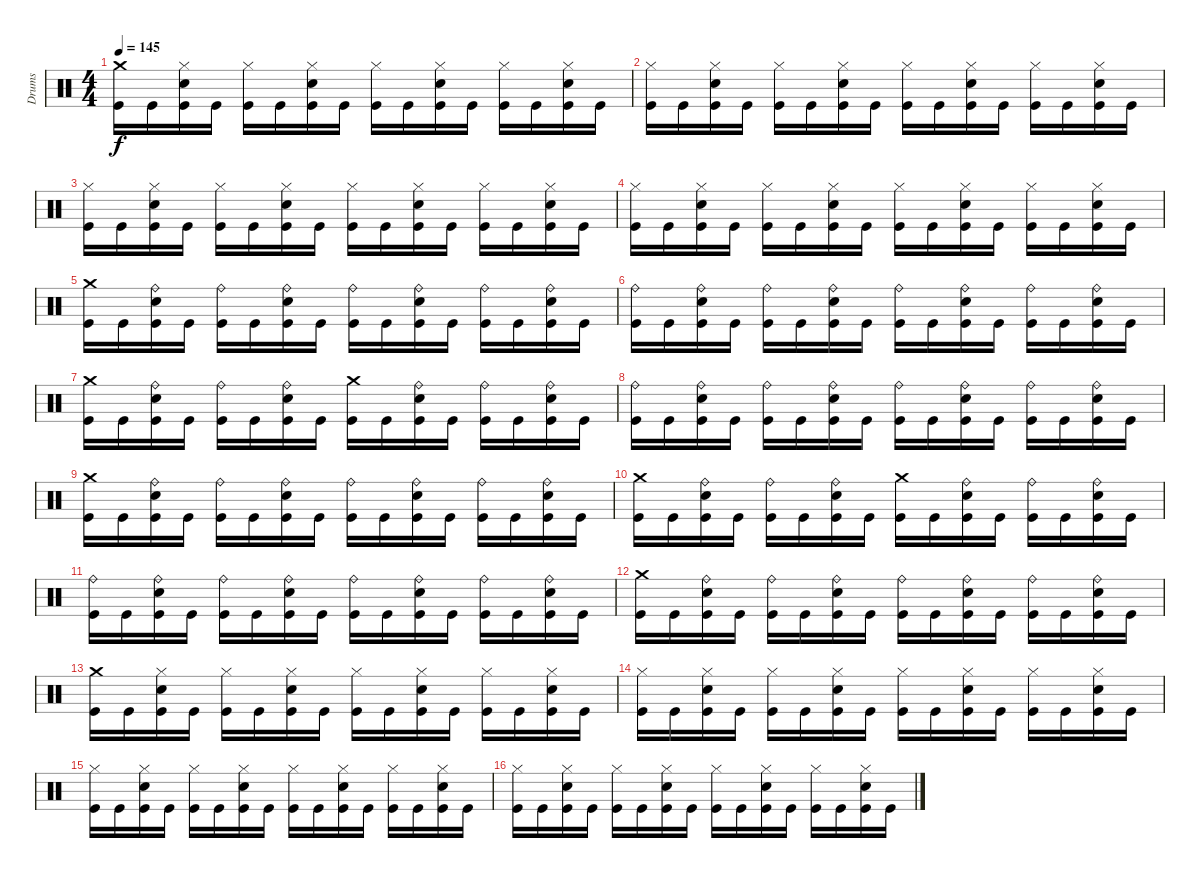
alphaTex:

\track ("Drums" "Drums") {instrument percussion}
\staff {score}
\articulation defaults
\ts (4 4)
\tempo 145
\clef neutral
\ks c
("Crash medium (hit)" "Kick (hit)").16{dy f} "Kick (hit)".16 ("Hi-Hat (closed)" "Snare (hit) 2" "Kick (hit)").16 "Kick (hit)".16 ("Hi-Hat (closed)" "Kick (hit)").16 "Kick (hit)".16 ("Hi-Hat (closed)" "Snare (hit) 2" "Kick (hit)").16 "Kick (hit)".16 ("Hi-Hat (closed)" "Kick (hit)").16 "Kick (hit)".16 ("Hi-Hat (closed)" "Snare (hit) 2" "Kick (hit)").16 "Kick (hit)".16 ("Hi-Hat (closed)" "Kick (hit)").16 "Kick (hit)".16 ("Hi-Hat (closed)" "Snare (hit) 2" "Kick (hit)").16 "Kick (hit)".16 |
("Hi-Hat (closed)" "Kick (hit)").16 "Kick (hit)".16 ("Hi-Hat (closed)" "Snare (hit) 2" "Kick (hit)").16 "Kick (hit)".16 ("Hi-Hat (closed)" "Kick (hit)").16 "Kick (hit)".16 ("Hi-Hat (closed)" "Snare (hit) 2" "Kick (hit)").16 "Kick (hit)".16 ("Hi-Hat (closed)" "Kick (hit)").16 "Kick (hit)".16 ("Hi-Hat (closed)" "Snare (hit) 2" "Kick (hit)").16 "Kick (hit)".16 ("Hi-Hat (closed)" "Kick (hit)").16 "Kick (hit)".16 ("Hi-Hat (closed)" "Snare (hit) 2" "Kick (hit)").16 "Kick (hit)".16 |
("Hi-Hat (closed)" "Kick (hit)").16 "Kick (hit)".16 ("Hi-Hat (closed)" "Snare (hit) 2" "Kick (hit)").16 "Kick (hit)".16 ("Hi-Hat (closed)" "Kick (hit)").16 "Kick (hit)".16 ("Hi-Hat (closed)" "Snare (hit) 2" "Kick (hit)").16 "Kick (hit)".16 ("Hi-Hat (closed)" "Kick (hit)").16 "Kick (hit)".16 ("Hi-Hat (closed)" "Snare (hit) 2" "Kick (hit)").16 "Kick (hit)".16 ("Hi-Hat (closed)" "Kick (hit)").16 "Kick (hit)".16 ("Hi-Hat (closed)" "Snare (hit) 2" "Kick (hit)").16 "Kick (hit)".16 |
("Hi-Hat (closed)" "Kick (hit)").16 "Kick (hit)".16 ("Hi-Hat (closed)" "Snare (hit) 2" "Kick (hit)").16 "Kick (hit)".16 ("Hi-Hat (closed)" "Kick (hit)").16 "Kick (hit)".16 ("Hi-Hat (closed)" "Snare (hit) 2" "Kick (hit)").16 "Kick (hit)".16 ("Hi-Hat (closed)" "Kick (hit)").16 "Kick (hit)".16 ("Hi-Hat (closed)" "Snare (hit) 2" "Kick (hit)").16 "Kick (hit)".16 ("Hi-Hat (closed)" "Kick (hit)").16 "Kick (hit)".16 ("Hi-Hat (closed)" "Snare (hit) 2" "Kick (hit)").16 "Kick (hit)".16 |
("Crash medium (hit)" "Kick (hit)").16 "Kick (hit)".16 ("Ride (bell)" "Snare (hit) 2" "Kick (hit)").16 "Kick (hit)".16 ("Ride (bell)" "Kick (hit)").16 "Kick (hit)".16 ("Ride (bell)" "Snare (hit) 2" "Kick (hit)").16 "Kick (hit)".16 ("Ride (bell)" "Kick (hit)").16 "Kick (hit)".16 ("Ride (bell)" "Snare (hit) 2" "Kick (hit)").16 "Kick (hit)".16 ("Ride (bell)" "Kick (hit)").16 "Kick (hit)".16 ("Ride (bell)" "Snare (hit) 2" "Kick (hit)").16 "Kick (hit)".16 |
("Ride (bell)" "Kick (hit)").16 "Kick (hit)".16 ("Ride (bell)" "Snare (hit) 2" "Kick (hit)").16 "Kick (hit)".16 ("Ride (bell)" "Kick (hit)").16 "Kick (hit)".16 ("Ride (bell)" "Snare (hit) 2" "Kick (hit)").16 "Kick (hit)".16 ("Ride (bell)" "Kick (hit)").16 "Kick (hit)".16 ("Ride (bell)" "Snare (hit) 2" "Kick (hit)").16 "Kick (hit)".16 ("Ride (bell)" "Kick (hit)").16 "Kick (hit)".16 ("Ride (bell)" "Snare (hit) 2" "Kick (hit)").16 "Kick (hit)".16 |
("Crash medium (hit)" "Kick (hit)").16 "Kick (hit)".16 ("Ride (bell)" "Snare (hit) 2" "Kick (hit)").16 "Kick (hit)".16 ("Ride (bell)" "Kick (hit)").16 "Kick (hit)".16 ("Ride (bell)" "Snare (hit) 2" "Kick (hit)").16 "Kick (hit)".16 ("Crash medium (hit)" "Kick (hit)").16 "Kick (hit)".16 ("Ride (bell)" "Snare (hit) 2" "Kick (hit)").16 "Kick (hit)".16 ("Ride (bell)" "Kick (hit)").16 "Kick (hit)".16 ("Ride (bell)" "Snare (hit) 2" "Kick (hit)").16 "Kick (hit)".16 |
("Ride (bell)" "Kick (hit)").16 "Kick (hit)".16 ("Ride (bell)" "Snare (hit) 2" "Kick (hit)").16 "Kick (hit)".16 ("Ride (bell)" "Kick (hit)").16 "Kick (hit)".16 ("Ride (bell)" "Snare (hit) 2" "Kick (hit)").16 "Kick (hit)".16 ("Ride (bell)" "Kick (hit)").16 "Kick (hit)".16 ("Ride (bell)" "Snare (hit) 2" "Kick (hit)").16 "Kick (hit)".16 ("Ride (bell)" "Kick (hit)").16 "Kick (hit)".16 ("Ride (bell)" "Snare (hit) 2" "Kick (hit)").16 "Kick (hit)".16 |
("Crash medium (hit)" "Kick (hit)").16 "Kick (hit)".16 ("Ride (bell)" "Snare (hit) 2" "Kick (hit)").16 "Kick (hit)".16 ("Ride (bell)" "Kick (hit)").16 "Kick (hit)".16 ("Ride (bell)" "Snare (hit) 2" "Kick (hit)").16 "Kick (hit)".16 ("Ride (bell)" "Kick (hit)").16 "Kick (hit)".16 ("Ride (bell)" "Snare (hit) 2" "Kick (hit)").16 "Kick (hit)".16 ("Ride (bell)" "Kick (hit)").16 "Kick (hit)".16 ("Ride (bell)" "Snare (hit) 2" "Kick (hit)").16 "Kick (hit)".16 |
("Crash medium (hit)" "Kick (hit)").16 "Kick (hit)".16 ("Ride (bell)" "Snare (hit) 2" "Kick (hit)").16 "Kick (hit)".16 ("Ride (bell)" "Kick (hit)").16 "Kick (hit)".16 ("Ride (bell)" "Snare (hit) 2" "Kick (hit)").16 "Kick (hit)".16 ("Crash medium (hit)" "Kick (hit)").16 "Kick (hit)".16 ("Ride (bell)" "Snare (hit) 2" "Kick (hit)").16 "Kick (hit)".16 ("Ride (bell)" "Kick (hit)").16 "Kick (hit)".16 ("Ride (bell)" "Snare (hit) 2" "Kick (hit)").16 "Kick (hit)".16 |
("Ride (bell)" "Kick (hit)").16 "Kick (hit)".16 ("Ride (bell)" "Snare (hit) 2" "Kick (hit)").16 "Kick (hit)".16 ("Ride (bell)" "Kick (hit)").16 "Kick (hit)".16 ("Ride (bell)" "Snare (hit) 2" "Kick (hit)").16 "Kick (hit)".16 ("Ride (bell)" "Kick (hit)").16 "Kick (hit)".16 ("Ride (bell)" "Snare (hit) 2" "Kick (hit)").16 "Kick (hit)".16 ("Ride (bell)" "Kick (hit)").16 "Kick (hit)".16 ("Ride (bell)" "Snare (hit) 2" "Kick (hit)").16 "Kick (hit)".16 |
("Crash medium (hit)" "Kick (hit)").16 "Kick (hit)".16 ("Ride (bell)" "Snare (hit) 2" "Kick (hit)").16 "Kick (hit)".16 ("Ride (bell)" "Kick (hit)").16 "Kick (hit)".16 ("Ride (bell)" "Snare (hit) 2" "Kick (hit)").16 "Kick (hit)".16 ("Ride (bell)" "Kick (hit)").16 "Kick (hit)".16 ("Ride (bell)" "Snare (hit) 2" "Kick (hit)").16 "Kick (hit)".16 ("Ride (bell)" "Kick (hit)").16 "Kick (hit)".16 ("Ride (bell)" "Snare (hit) 2" "Kick (hit)").16 "Kick (hit)".16 |
("Crash medium (hit)" "Kick (hit)").16 "Kick (hit)".16 ("Hi-Hat (closed)" "Snare (hit) 2" "Kick (hit)").16 "Kick (hit)".16 ("Hi-Hat (closed)" "Kick (hit)").16 "Kick (hit)".16 ("Hi-Hat (closed)" "Snare (hit) 2" "Kick (hit)").16 "Kick (hit)".16 ("Hi-Hat (closed)" "Kick (hit)").16 "Kick (hit)".16 ("Hi-Hat (closed)" "Snare (hit) 2" "Kick (hit)").16 "Kick (hit)".16 ("Hi-Hat (closed)" "Kick (hit)").16 "Kick (hit)".16 ("Hi-Hat (closed)" "Snare (hit) 2" "Kick (hit)").16 "Kick (hit)".16 |
("Hi-Hat (closed)" "Kick (hit)").16 "Kick (hit)".16 ("Hi-Hat (closed)" "Snare (hit) 2" "Kick (hit)").16 "Kick (hit)".16 ("Hi-Hat (closed)" "Kick (hit)").16 "Kick (hit)".16 ("Hi-Hat (closed)" "Snare (hit) 2" "Kick (hit)").16 "Kick (hit)".16 ("Hi-Hat (closed)" "Kick (hit)").16 "Kick (hit)".16 ("Hi-Hat (closed)" "Snare (hit) 2" "Kick (hit)").16 "Kick (hit)".16 ("Hi-Hat (closed)" "Kick (hit)").16 "Kick (hit)".16 ("Hi-Hat (closed)" "Snare (hit) 2" "Kick (hit)").16 "Kick (hit)".16 |
("Hi-Hat (closed)" "Kick (hit)").16 "Kick (hit)".16 ("Hi-Hat (closed)" "Snare (hit) 2" "Kick (hit)").16 "Kick (hit)".16 ("Hi-Hat (closed)" "Kick (hit)").16 "Kick (hit)".16 ("Hi-Hat (closed)" "Snare (hit) 2" "Kick (hit)").16 "Kick (hit)".16 ("Hi-Hat (closed)" "Kick (hit)").16 "Kick (hit)".16 ("Hi-Hat (closed)" "Snare (hit) 2" "Kick (hit)").16 "Kick (hit)".16 ("Hi-Hat (closed)" "Kick (hit)").16 "Kick (hit)".16 ("Hi-Hat (closed)" "Snare (hit) 2" "Kick (hit)").16 "Kick (hit)".16 |
("Hi-Hat (closed)" "Kick (hit)").16 "Kick (hit)".16 ("Hi-Hat (closed)" "Snare (hit) 2" "Kick (hit)").16 "Kick (hit)".16 ("Hi-Hat (closed)" "Kick (hit)").16 "Kick (hit)".16 ("Hi-Hat (closed)" "Snare (hit) 2" "Kick (hit)").16 "Kick (hit)".16 ("Hi-Hat (closed)" "Kick (hit)").16 "Kick (hit)".16 ("Hi-Hat (closed)" "Snare (hit) 2" "Kick (hit)").16 "Kick (hit)".16 ("Hi-Hat (closed)" "Kick (hit)").16 "Kick (hit)".16 ("Hi-Hat (closed)" "Snare (hit) 2" "Kick (hit)").16 "Kick (hit)".16
